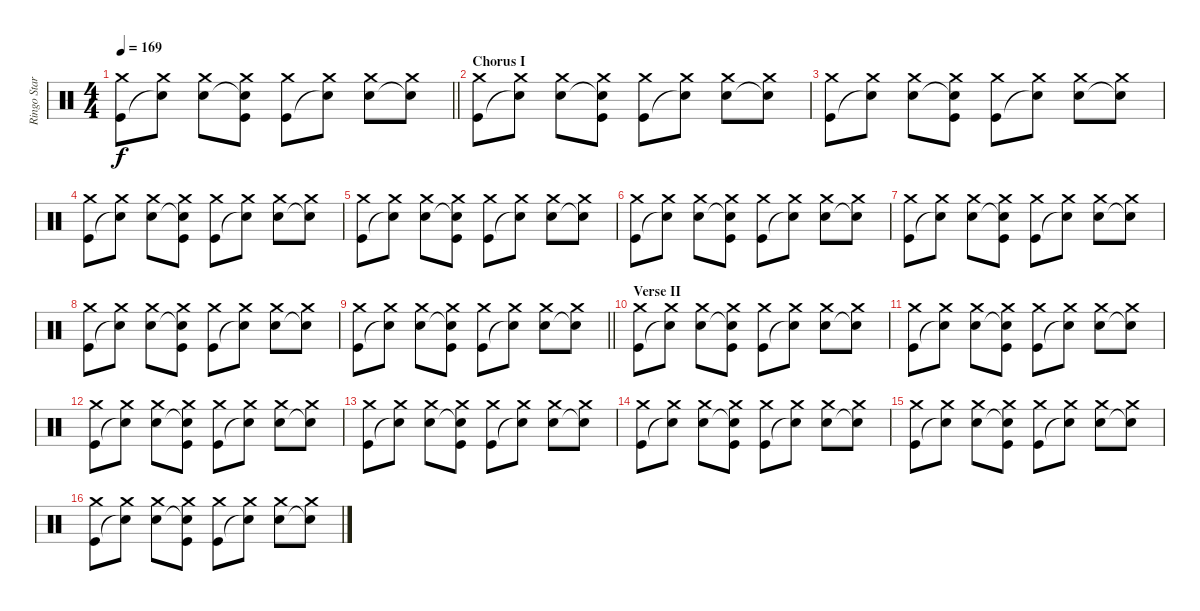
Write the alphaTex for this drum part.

\track ("Ringo Starr" "Ringo Star") {instrument percussion}
\staff {score}
\articulation defaults
\ts (4 4)
\tempo 169
\clef neutral
\barLineRight lightlight
\ks c
("Crash medium (hit)" "Kick (hit)").8{dy f} ("Crash medium (hit)" "Snare (hit)"{t}).8 ("Crash medium (hit)" "Snare (hit) 2").8 ("Crash medium (hit)" "Snare (hit)"{t} "Kick (hit)").8 ("Crash medium (hit)" "Kick (hit)").8 ("Crash medium (hit)" "Snare (hit)"{t}).8 ("Crash medium (hit)" "Snare (hit) 2").8 ("Crash medium (hit)" "Snare (hit)"{t}).8 |
\section ("" "Chorus I")
("Crash medium (hit)" "Kick (hit)").8 ("Crash medium (hit)" "Snare (hit)"{t}).8 ("Crash medium (hit)" "Snare (hit) 2").8 ("Crash medium (hit)" "Snare (hit)"{t} "Kick (hit)").8 ("Crash medium (hit)" "Kick (hit)").8 ("Crash medium (hit)" "Snare (hit)"{t}).8 ("Crash medium (hit)" "Snare (hit) 2").8 ("Crash medium (hit)" "Snare (hit)"{t}).8 |
("Crash medium (hit)" "Kick (hit)").8 ("Crash medium (hit)" "Snare (hit)"{t}).8 ("Crash medium (hit)" "Snare (hit) 2").8 ("Crash medium (hit)" "Snare (hit)"{t} "Kick (hit)").8 ("Crash medium (hit)" "Kick (hit)").8 ("Crash medium (hit)" "Snare (hit)"{t}).8 ("Crash medium (hit)" "Snare (hit) 2").8 ("Crash medium (hit)" "Snare (hit)"{t}).8 |
("Crash medium (hit)" "Kick (hit)").8 ("Crash medium (hit)" "Snare (hit)"{t}).8 ("Crash medium (hit)" "Snare (hit) 2").8 ("Crash medium (hit)" "Snare (hit)"{t} "Kick (hit)").8 ("Crash medium (hit)" "Kick (hit)").8 ("Crash medium (hit)" "Snare (hit)"{t}).8 ("Crash medium (hit)" "Snare (hit) 2").8 ("Crash medium (hit)" "Snare (hit)"{t}).8 |
("Crash medium (hit)" "Kick (hit)").8 ("Crash medium (hit)" "Snare (hit)"{t}).8 ("Crash medium (hit)" "Snare (hit) 2").8 ("Crash medium (hit)" "Snare (hit)"{t} "Kick (hit)").8 ("Crash medium (hit)" "Kick (hit)").8 ("Crash medium (hit)" "Snare (hit)"{t}).8 ("Crash medium (hit)" "Snare (hit) 2").8 ("Crash medium (hit)" "Snare (hit)"{t}).8 |
("Crash medium (hit)" "Kick (hit)").8 ("Crash medium (hit)" "Snare (hit)"{t}).8 ("Crash medium (hit)" "Snare (hit) 2").8 ("Crash medium (hit)" "Snare (hit)"{t} "Kick (hit)").8 ("Crash medium (hit)" "Kick (hit)").8 ("Crash medium (hit)" "Snare (hit)"{t}).8 ("Crash medium (hit)" "Snare (hit) 2").8 ("Crash medium (hit)" "Snare (hit)"{t}).8 |
("Crash medium (hit)" "Kick (hit)").8 ("Crash medium (hit)" "Snare (hit)"{t}).8 ("Crash medium (hit)" "Snare (hit) 2").8 ("Crash medium (hit)" "Snare (hit)"{t} "Kick (hit)").8 ("Crash medium (hit)" "Kick (hit)").8 ("Crash medium (hit)" "Snare (hit)"{t}).8 ("Crash medium (hit)" "Snare (hit) 2").8 ("Crash medium (hit)" "Snare (hit)"{t}).8 |
("Crash medium (hit)" "Kick (hit)").8 ("Crash medium (hit)" "Snare (hit)"{t}).8 ("Crash medium (hit)" "Snare (hit) 2").8 ("Crash medium (hit)" "Snare (hit)"{t} "Kick (hit)").8 ("Crash medium (hit)" "Kick (hit)").8 ("Crash medium (hit)" "Snare (hit)"{t}).8 ("Crash medium (hit)" "Snare (hit) 2").8 ("Crash medium (hit)" "Snare (hit)"{t}).8 |
\barLineRight lightlight
("Crash medium (hit)" "Kick (hit)").8 ("Crash medium (hit)" "Snare (hit)"{t}).8 ("Crash medium (hit)" "Snare (hit) 2").8 ("Crash medium (hit)" "Snare (hit)"{t} "Kick (hit)").8 ("Crash medium (hit)" "Kick (hit)").8 ("Crash medium (hit)" "Snare (hit)"{t}).8 ("Crash medium (hit)" "Snare (hit) 2").8 ("Crash medium (hit)" "Snare (hit)"{t}).8 |
\section ("" "Verse II")
("Crash medium (hit)" "Kick (hit)").8 ("Crash medium (hit)" "Snare (hit)"{t}).8 ("Crash medium (hit)" "Snare (hit) 2").8 ("Crash medium (hit)" "Snare (hit)"{t} "Kick (hit)").8 ("Crash medium (hit)" "Kick (hit)").8 ("Crash medium (hit)" "Snare (hit)"{t}).8 ("Crash medium (hit)" "Snare (hit) 2").8 ("Crash medium (hit)" "Snare (hit)"{t}).8 |
("Crash medium (hit)" "Kick (hit)").8 ("Crash medium (hit)" "Snare (hit)"{t}).8 ("Crash medium (hit)" "Snare (hit) 2").8 ("Crash medium (hit)" "Snare (hit)"{t} "Kick (hit)").8 ("Crash medium (hit)" "Kick (hit)").8 ("Crash medium (hit)" "Snare (hit)"{t}).8 ("Crash medium (hit)" "Snare (hit) 2").8 ("Crash medium (hit)" "Snare (hit)"{t}).8 |
("Crash medium (hit)" "Kick (hit)").8 ("Crash medium (hit)" "Snare (hit)"{t}).8 ("Crash medium (hit)" "Snare (hit) 2").8 ("Crash medium (hit)" "Snare (hit)"{t} "Kick (hit)").8 ("Crash medium (hit)" "Kick (hit)").8 ("Crash medium (hit)" "Snare (hit)"{t}).8 ("Crash medium (hit)" "Snare (hit) 2").8 ("Crash medium (hit)" "Snare (hit)"{t}).8 |
("Crash medium (hit)" "Kick (hit)").8 ("Crash medium (hit)" "Snare (hit)"{t}).8 ("Crash medium (hit)" "Snare (hit) 2").8 ("Crash medium (hit)" "Snare (hit)"{t} "Kick (hit)").8 ("Crash medium (hit)" "Kick (hit)").8 ("Crash medium (hit)" "Snare (hit)"{t}).8 ("Crash medium (hit)" "Snare (hit) 2").8 ("Crash medium (hit)" "Snare (hit)"{t}).8 |
("Crash medium (hit)" "Kick (hit)").8 ("Crash medium (hit)" "Snare (hit)"{t}).8 ("Crash medium (hit)" "Snare (hit) 2").8 ("Crash medium (hit)" "Snare (hit)"{t} "Kick (hit)").8 ("Crash medium (hit)" "Kick (hit)").8 ("Crash medium (hit)" "Snare (hit)"{t}).8 ("Crash medium (hit)" "Snare (hit) 2").8 ("Crash medium (hit)" "Snare (hit)"{t}).8 |
("Crash medium (hit)" "Kick (hit)").8 ("Crash medium (hit)" "Snare (hit)"{t}).8 ("Crash medium (hit)" "Snare (hit) 2").8 ("Crash medium (hit)" "Snare (hit)"{t} "Kick (hit)").8 ("Crash medium (hit)" "Kick (hit)").8 ("Crash medium (hit)" "Snare (hit)"{t}).8 ("Crash medium (hit)" "Snare (hit) 2").8 ("Crash medium (hit)" "Snare (hit)"{t}).8 |
("Crash medium (hit)" "Kick (hit)").8 ("Crash medium (hit)" "Snare (hit)"{t}).8 ("Crash medium (hit)" "Snare (hit) 2").8 ("Crash medium (hit)" "Snare (hit)"{t} "Kick (hit)").8 ("Crash medium (hit)" "Kick (hit)").8 ("Crash medium (hit)" "Snare (hit)"{t}).8 ("Crash medium (hit)" "Snare (hit) 2").8 ("Crash medium (hit)" "Snare (hit)"{t}).8
